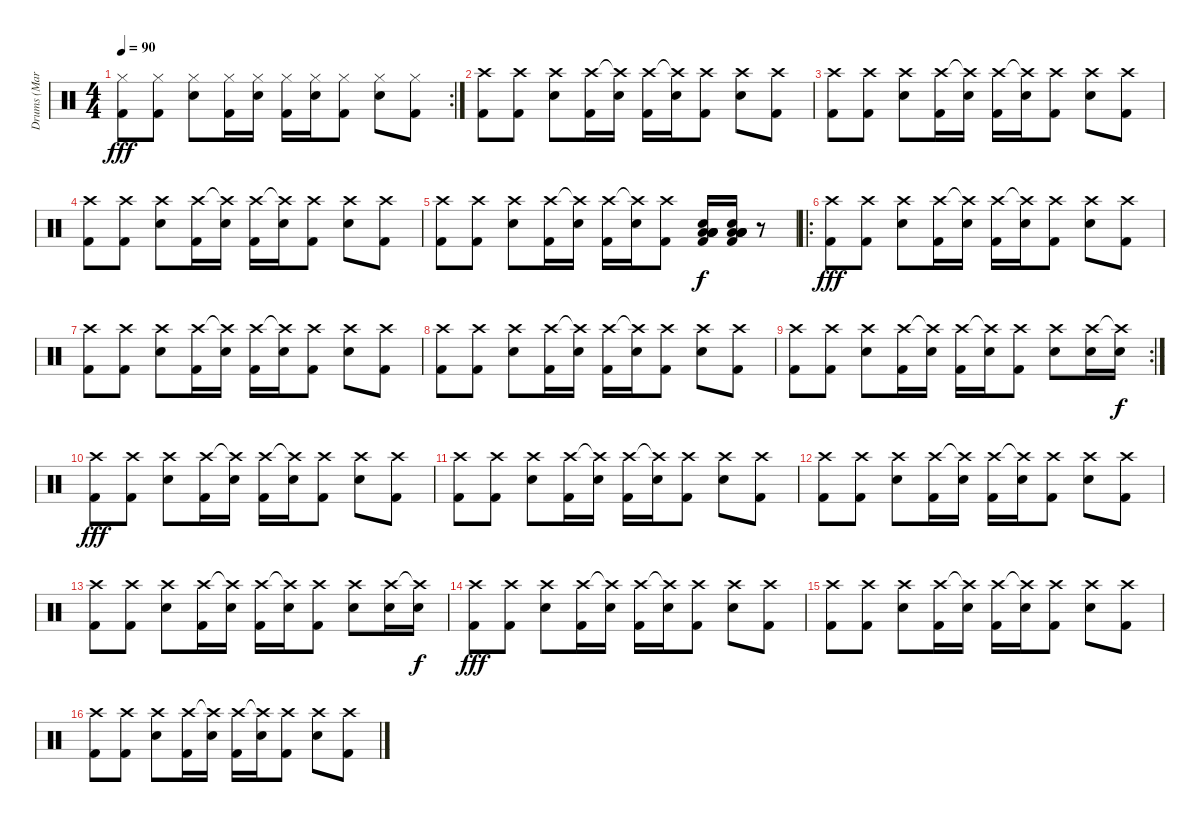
\track ("Drums (Mark Escueta)" "Drums (Mar") {instrument percussion}
\staff {score}
\articulation defaults
\rc 2
\ts (4 4)
\tempo 90
\clef neutral
\ks c
("Hi-Hat (closed)" "Kick (hit) 2").8{dy fff} ("Hi-Hat (closed)" "Kick (hit) 2").8 ("Hi-Hat (closed)" "Snare (hit) 2").8 ("Hi-Hat (closed)" "Kick (hit) 2").16 ("Hi-Hat (closed)" "Snare (hit) 2").16 ("Hi-Hat (closed)" "Kick (hit) 2").16 ("Hi-Hat (closed)" "Snare (hit) 2").16 ("Hi-Hat (closed)" "Kick (hit) 2").8 ("Hi-Hat (closed)" "Snare (hit) 2").8 ("Hi-Hat (closed)" "Kick (hit) 2").8 |
("Crash high (hit)" "Kick (hit) 2").8 ("Crash high (hit)" "Kick (hit) 2").8 ("Crash high (hit)" "Snare (hit) 2").8 ("Crash high (hit)" "Kick (hit) 2").16 ("Crash high (hit)"{t} "Snare (hit) 2").16 ("Crash high (hit)" "Kick (hit) 2").16 ("Crash high (hit)"{t} "Snare (hit) 2").16 ("Crash high (hit)" "Kick (hit) 2").8 ("Crash high (hit)" "Snare (hit) 2").8 ("Crash high (hit)" "Kick (hit) 2").8 |
("Crash high (hit)" "Kick (hit) 2").8 ("Crash high (hit)" "Kick (hit) 2").8 ("Crash high (hit)" "Snare (hit) 2").8 ("Crash high (hit)" "Kick (hit) 2").16 ("Crash high (hit)"{t} "Snare (hit) 2").16 ("Crash high (hit)" "Kick (hit) 2").16 ("Crash high (hit)"{t} "Snare (hit) 2").16 ("Crash high (hit)" "Kick (hit) 2").8 ("Crash high (hit)" "Snare (hit) 2").8 ("Crash high (hit)" "Kick (hit) 2").8 |
("Crash high (hit)" "Kick (hit) 2").8 ("Crash high (hit)" "Kick (hit) 2").8 ("Crash high (hit)" "Snare (hit) 2").8 ("Crash high (hit)" "Kick (hit) 2").16 ("Crash high (hit)"{t} "Snare (hit) 2").16 ("Crash high (hit)" "Kick (hit) 2").16 ("Crash high (hit)"{t} "Snare (hit) 2").16 ("Crash high (hit)" "Kick (hit) 2").8 ("Crash high (hit)" "Snare (hit) 2").8 ("Crash high (hit)" "Kick (hit) 2").8 |
("Crash high (hit)" "Kick (hit) 2").8 ("Crash high (hit)" "Kick (hit) 2").8 ("Crash high (hit)" "Snare (hit) 2").8 ("Crash high (hit)" "Kick (hit) 2").16 ("Crash high (hit)"{t} "Snare (hit) 2").16 ("Crash high (hit)" "Kick (hit) 2").16 ("Crash high (hit)"{t} "Snare (hit) 2").16 ("Crash high (hit)" "Kick (hit) 2").8 ("Low Floor Tom (hit)" "Low Floor Tom (hit)" "Snare (hit) 2" "Low Floor Tom (hit)" "Low Floor Tom (hit)" "Kick (hit) 2").16{dy f} ("Low Floor Tom (hit)" "Low Floor Tom (hit)" "Snare (hit) 2" "Low Floor Tom (hit)" "Low Floor Tom (hit)" "Kick (hit) 2").16 r.8 |
\ro
("Crash high (hit)" "Kick (hit) 2").8{dy fff} ("Crash high (hit)" "Kick (hit) 2").8 ("Crash high (hit)" "Snare (hit) 2").8 ("Crash high (hit)" "Kick (hit) 2").16 ("Crash high (hit)"{t} "Snare (hit) 2").16 ("Crash high (hit)" "Kick (hit) 2").16 ("Crash high (hit)"{t} "Snare (hit) 2").16 ("Crash high (hit)" "Kick (hit) 2").8 ("Crash high (hit)" "Snare (hit) 2").8 ("Crash high (hit)" "Kick (hit) 2").8 |
("Crash high (hit)" "Kick (hit) 2").8 ("Crash high (hit)" "Kick (hit) 2").8 ("Crash high (hit)" "Snare (hit) 2").8 ("Crash high (hit)" "Kick (hit) 2").16 ("Crash high (hit)"{t} "Snare (hit) 2").16 ("Crash high (hit)" "Kick (hit) 2").16 ("Crash high (hit)"{t} "Snare (hit) 2").16 ("Crash high (hit)" "Kick (hit) 2").8 ("Crash high (hit)" "Snare (hit) 2").8 ("Crash high (hit)" "Kick (hit) 2").8 |
("Crash high (hit)" "Kick (hit) 2").8 ("Crash high (hit)" "Kick (hit) 2").8 ("Crash high (hit)" "Snare (hit) 2").8 ("Crash high (hit)" "Kick (hit) 2").16 ("Crash high (hit)"{t} "Snare (hit) 2").16 ("Crash high (hit)" "Kick (hit) 2").16 ("Crash high (hit)"{t} "Snare (hit) 2").16 ("Crash high (hit)" "Kick (hit) 2").8 ("Crash high (hit)" "Snare (hit) 2").8 ("Crash high (hit)" "Kick (hit) 2").8 |
\rc 2
("Crash high (hit)" "Kick (hit) 2").8 ("Crash high (hit)" "Kick (hit) 2").8 ("Crash high (hit)" "Snare (hit) 2").8 ("Crash high (hit)" "Kick (hit) 2").16 ("Crash high (hit)"{t} "Snare (hit) 2").16 ("Crash high (hit)" "Kick (hit) 2").16 ("Crash high (hit)"{t} "Snare (hit) 2").16 ("Crash high (hit)" "Kick (hit) 2").8 ("Crash high (hit)" "Snare (hit) 2").8 ("Crash high (hit)" "Snare (hit) 2").16 ("Crash high (hit)"{t} "Snare (hit) 2").16{dy f} |
("Crash high (hit)" "Kick (hit) 2").8{dy fff} ("Crash high (hit)" "Kick (hit) 2").8 ("Crash high (hit)" "Snare (hit) 2").8 ("Crash high (hit)" "Kick (hit) 2").16 ("Crash high (hit)"{t} "Snare (hit) 2").16 ("Crash high (hit)" "Kick (hit) 2").16 ("Crash high (hit)"{t} "Snare (hit) 2").16 ("Crash high (hit)" "Kick (hit) 2").8 ("Crash high (hit)" "Snare (hit) 2").8 ("Crash high (hit)" "Kick (hit) 2").8 |
("Crash high (hit)" "Kick (hit) 2").8 ("Crash high (hit)" "Kick (hit) 2").8 ("Crash high (hit)" "Snare (hit) 2").8 ("Crash high (hit)" "Kick (hit) 2").16 ("Crash high (hit)"{t} "Snare (hit) 2").16 ("Crash high (hit)" "Kick (hit) 2").16 ("Crash high (hit)"{t} "Snare (hit) 2").16 ("Crash high (hit)" "Kick (hit) 2").8 ("Crash high (hit)" "Snare (hit) 2").8 ("Crash high (hit)" "Kick (hit) 2").8 |
("Crash high (hit)" "Kick (hit) 2").8 ("Crash high (hit)" "Kick (hit) 2").8 ("Crash high (hit)" "Snare (hit) 2").8 ("Crash high (hit)" "Kick (hit) 2").16 ("Crash high (hit)"{t} "Snare (hit) 2").16 ("Crash high (hit)" "Kick (hit) 2").16 ("Crash high (hit)"{t} "Snare (hit) 2").16 ("Crash high (hit)" "Kick (hit) 2").8 ("Crash high (hit)" "Snare (hit) 2").8 ("Crash high (hit)" "Kick (hit) 2").8 |
("Crash high (hit)" "Kick (hit) 2").8 ("Crash high (hit)" "Kick (hit) 2").8 ("Crash high (hit)" "Snare (hit) 2").8 ("Crash high (hit)" "Kick (hit) 2").16 ("Crash high (hit)"{t} "Snare (hit) 2").16 ("Crash high (hit)" "Kick (hit) 2").16 ("Crash high (hit)"{t} "Snare (hit) 2").16 ("Crash high (hit)" "Kick (hit) 2").8 ("Crash high (hit)" "Snare (hit) 2").8 ("Crash high (hit)" "Snare (hit) 2").16 ("Crash high (hit)"{t} "Snare (hit) 2").16{dy f} |
("Crash high (hit)" "Kick (hit) 2").8{dy fff} ("Crash high (hit)" "Kick (hit) 2").8 ("Crash high (hit)" "Snare (hit) 2").8 ("Crash high (hit)" "Kick (hit) 2").16 ("Crash high (hit)"{t} "Snare (hit) 2").16 ("Crash high (hit)" "Kick (hit) 2").16 ("Crash high (hit)"{t} "Snare (hit) 2").16 ("Crash high (hit)" "Kick (hit) 2").8 ("Crash high (hit)" "Snare (hit) 2").8 ("Crash high (hit)" "Kick (hit) 2").8 |
("Crash high (hit)" "Kick (hit) 2").8 ("Crash high (hit)" "Kick (hit) 2").8 ("Crash high (hit)" "Snare (hit) 2").8 ("Crash high (hit)" "Kick (hit) 2").16 ("Crash high (hit)"{t} "Snare (hit) 2").16 ("Crash high (hit)" "Kick (hit) 2").16 ("Crash high (hit)"{t} "Snare (hit) 2").16 ("Crash high (hit)" "Kick (hit) 2").8 ("Crash high (hit)" "Snare (hit) 2").8 ("Crash high (hit)" "Kick (hit) 2").8 |
("Crash high (hit)" "Kick (hit) 2").8 ("Crash high (hit)" "Kick (hit) 2").8 ("Crash high (hit)" "Snare (hit) 2").8 ("Crash high (hit)" "Kick (hit) 2").16 ("Crash high (hit)"{t} "Snare (hit) 2").16 ("Crash high (hit)" "Kick (hit) 2").16 ("Crash high (hit)"{t} "Snare (hit) 2").16 ("Crash high (hit)" "Kick (hit) 2").8 ("Crash high (hit)" "Snare (hit) 2").8 ("Crash high (hit)" "Kick (hit) 2").8
